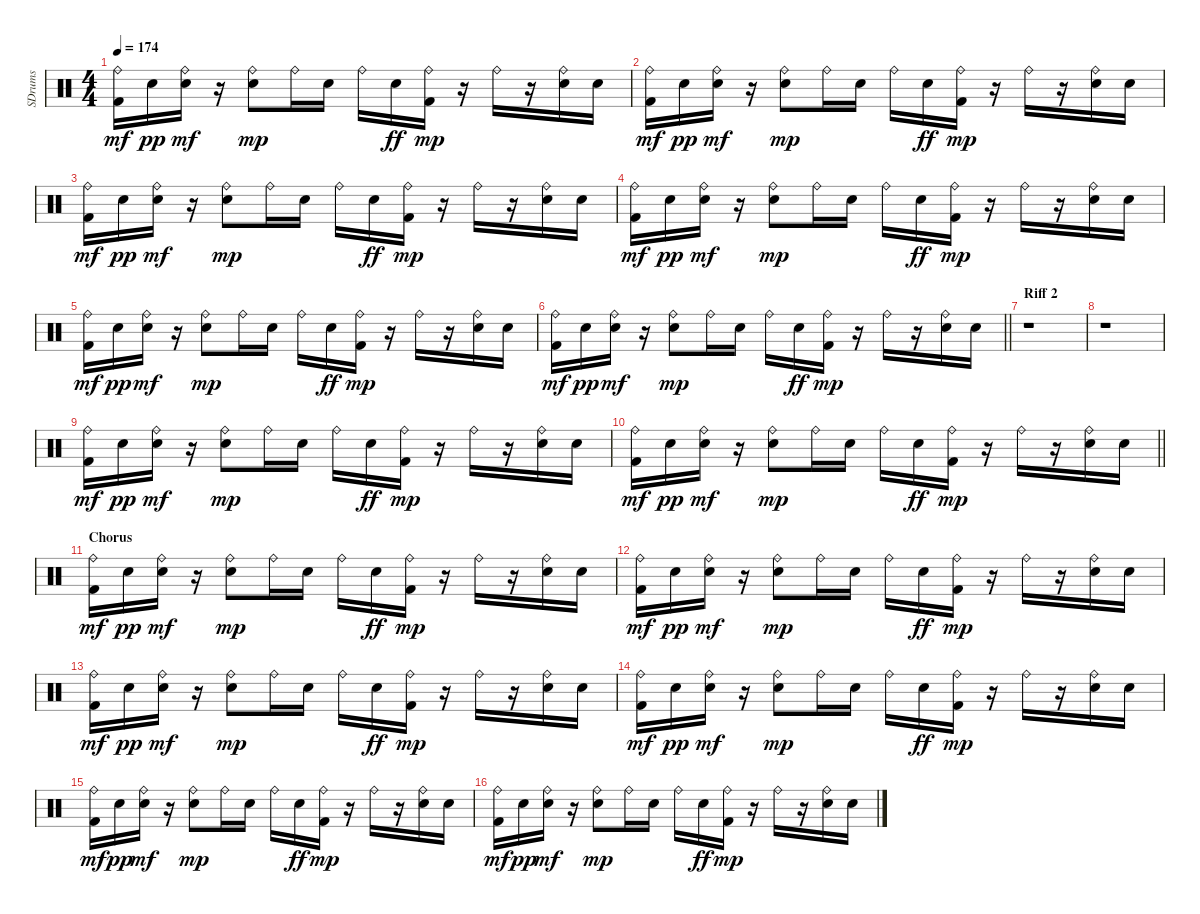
\track ("SDrums" "SDrums") {instrument percussion}
\staff {score}
\articulation defaults
\ts (4 4)
\tempo 174
\clef neutral
\ks c
("Kick (hit) 2" "Ride (bell)").16{dy mf} "Snare (hit) 2".16{dy pp} ("Snare (hit) 2" "Ride (bell)").16{dy mf} r.16 ("Snare (hit) 2" "Ride (bell)").8{dy mp} "Ride (bell)".16 "Snare (hit) 2".16 "Ride (bell)".16 "Snare (hit) 2".16{dy ff} ("Kick (hit) 2" "Ride (bell)").16{dy mp} r.16 "Ride (bell)".16 r.16 ("Snare (hit) 2" "Ride (bell)").16 "Snare (hit) 2".16 |
("Kick (hit) 2" "Ride (bell)").16{dy mf} "Snare (hit) 2".16{dy pp} ("Snare (hit) 2" "Ride (bell)").16{dy mf} r.16 ("Snare (hit) 2" "Ride (bell)").8{dy mp} "Ride (bell)".16 "Snare (hit) 2".16 "Ride (bell)".16 "Snare (hit) 2".16{dy ff} ("Kick (hit) 2" "Ride (bell)").16{dy mp} r.16 "Ride (bell)".16 r.16 ("Snare (hit) 2" "Ride (bell)").16 "Snare (hit) 2".16 |
("Kick (hit) 2" "Ride (bell)").16{dy mf} "Snare (hit) 2".16{dy pp} ("Snare (hit) 2" "Ride (bell)").16{dy mf} r.16 ("Snare (hit) 2" "Ride (bell)").8{dy mp} "Ride (bell)".16 "Snare (hit) 2".16 "Ride (bell)".16 "Snare (hit) 2".16{dy ff} ("Kick (hit) 2" "Ride (bell)").16{dy mp} r.16 "Ride (bell)".16 r.16 ("Snare (hit) 2" "Ride (bell)").16 "Snare (hit) 2".16 |
("Kick (hit) 2" "Ride (bell)").16{dy mf} "Snare (hit) 2".16{dy pp} ("Snare (hit) 2" "Ride (bell)").16{dy mf} r.16 ("Snare (hit) 2" "Ride (bell)").8{dy mp} "Ride (bell)".16 "Snare (hit) 2".16 "Ride (bell)".16 "Snare (hit) 2".16{dy ff} ("Kick (hit) 2" "Ride (bell)").16{dy mp} r.16 "Ride (bell)".16 r.16 ("Snare (hit) 2" "Ride (bell)").16 "Snare (hit) 2".16 |
("Kick (hit) 2" "Ride (bell)").16{dy mf} "Snare (hit) 2".16{dy pp} ("Snare (hit) 2" "Ride (bell)").16{dy mf} r.16 ("Snare (hit) 2" "Ride (bell)").8{dy mp} "Ride (bell)".16 "Snare (hit) 2".16 "Ride (bell)".16 "Snare (hit) 2".16{dy ff} ("Kick (hit) 2" "Ride (bell)").16{dy mp} r.16 "Ride (bell)".16 r.16 ("Snare (hit) 2" "Ride (bell)").16 "Snare (hit) 2".16 |
\barLineRight lightlight
("Kick (hit) 2" "Ride (bell)").16{dy mf} "Snare (hit) 2".16{dy pp} ("Snare (hit) 2" "Ride (bell)").16{dy mf} r.16 ("Snare (hit) 2" "Ride (bell)").8{dy mp} "Ride (bell)".16 "Snare (hit) 2".16 "Ride (bell)".16 "Snare (hit) 2".16{dy ff} ("Kick (hit) 2" "Ride (bell)").16{dy mp} r.16 "Ride (bell)".16 r.16 ("Snare (hit) 2" "Ride (bell)").16 "Snare (hit) 2".16 |
\section ("" "Riff 2")
r.1 |
r.1 |
("Kick (hit) 2" "Ride (bell)").16{dy mf} "Snare (hit) 2".16{dy pp} ("Snare (hit) 2" "Ride (bell)").16{dy mf} r.16 ("Snare (hit) 2" "Ride (bell)").8{dy mp} "Ride (bell)".16 "Snare (hit) 2".16 "Ride (bell)".16 "Snare (hit) 2".16{dy ff} ("Kick (hit) 2" "Ride (bell)").16{dy mp} r.16 "Ride (bell)".16 r.16 ("Snare (hit) 2" "Ride (bell)").16 "Snare (hit) 2".16 |
\barLineRight lightlight
("Kick (hit) 2" "Ride (bell)").16{dy mf} "Snare (hit) 2".16{dy pp} ("Snare (hit) 2" "Ride (bell)").16{dy mf} r.16 ("Snare (hit) 2" "Ride (bell)").8{dy mp} "Ride (bell)".16 "Snare (hit) 2".16 "Ride (bell)".16 "Snare (hit) 2".16{dy ff} ("Kick (hit) 2" "Ride (bell)").16{dy mp} r.16 "Ride (bell)".16 r.16 ("Snare (hit) 2" "Ride (bell)").16 "Snare (hit) 2".16 |
\section ("" "Chorus")
("Kick (hit) 2" "Ride (bell)").16{dy mf} "Snare (hit) 2".16{dy pp} ("Snare (hit) 2" "Ride (bell)").16{dy mf} r.16 ("Snare (hit) 2" "Ride (bell)").8{dy mp} "Ride (bell)".16 "Snare (hit) 2".16 "Ride (bell)".16 "Snare (hit) 2".16{dy ff} ("Kick (hit) 2" "Ride (bell)").16{dy mp} r.16 "Ride (bell)".16 r.16 ("Snare (hit) 2" "Ride (bell)").16 "Snare (hit) 2".16 |
("Kick (hit) 2" "Ride (bell)").16{dy mf} "Snare (hit) 2".16{dy pp} ("Snare (hit) 2" "Ride (bell)").16{dy mf} r.16 ("Snare (hit) 2" "Ride (bell)").8{dy mp} "Ride (bell)".16 "Snare (hit) 2".16 "Ride (bell)".16 "Snare (hit) 2".16{dy ff} ("Kick (hit) 2" "Ride (bell)").16{dy mp} r.16 "Ride (bell)".16 r.16 ("Snare (hit) 2" "Ride (bell)").16 "Snare (hit) 2".16 |
("Kick (hit) 2" "Ride (bell)").16{dy mf} "Snare (hit) 2".16{dy pp} ("Snare (hit) 2" "Ride (bell)").16{dy mf} r.16 ("Snare (hit) 2" "Ride (bell)").8{dy mp} "Ride (bell)".16 "Snare (hit) 2".16 "Ride (bell)".16 "Snare (hit) 2".16{dy ff} ("Kick (hit) 2" "Ride (bell)").16{dy mp} r.16 "Ride (bell)".16 r.16 ("Snare (hit) 2" "Ride (bell)").16 "Snare (hit) 2".16 |
("Kick (hit) 2" "Ride (bell)").16{dy mf} "Snare (hit) 2".16{dy pp} ("Snare (hit) 2" "Ride (bell)").16{dy mf} r.16 ("Snare (hit) 2" "Ride (bell)").8{dy mp} "Ride (bell)".16 "Snare (hit) 2".16 "Ride (bell)".16 "Snare (hit) 2".16{dy ff} ("Kick (hit) 2" "Ride (bell)").16{dy mp} r.16 "Ride (bell)".16 r.16 ("Snare (hit) 2" "Ride (bell)").16 "Snare (hit) 2".16 |
("Kick (hit) 2" "Ride (bell)").16{dy mf} "Snare (hit) 2".16{dy pp} ("Snare (hit) 2" "Ride (bell)").16{dy mf} r.16 ("Snare (hit) 2" "Ride (bell)").8{dy mp} "Ride (bell)".16 "Snare (hit) 2".16 "Ride (bell)".16 "Snare (hit) 2".16{dy ff} ("Kick (hit) 2" "Ride (bell)").16{dy mp} r.16 "Ride (bell)".16 r.16 ("Snare (hit) 2" "Ride (bell)").16 "Snare (hit) 2".16 |
("Kick (hit) 2" "Ride (bell)").16{dy mf} "Snare (hit) 2".16{dy pp} ("Snare (hit) 2" "Ride (bell)").16{dy mf} r.16 ("Snare (hit) 2" "Ride (bell)").8{dy mp} "Ride (bell)".16 "Snare (hit) 2".16 "Ride (bell)".16 "Snare (hit) 2".16{dy ff} ("Kick (hit) 2" "Ride (bell)").16{dy mp} r.16 "Ride (bell)".16 r.16 ("Snare (hit) 2" "Ride (bell)").16 "Snare (hit) 2".16
